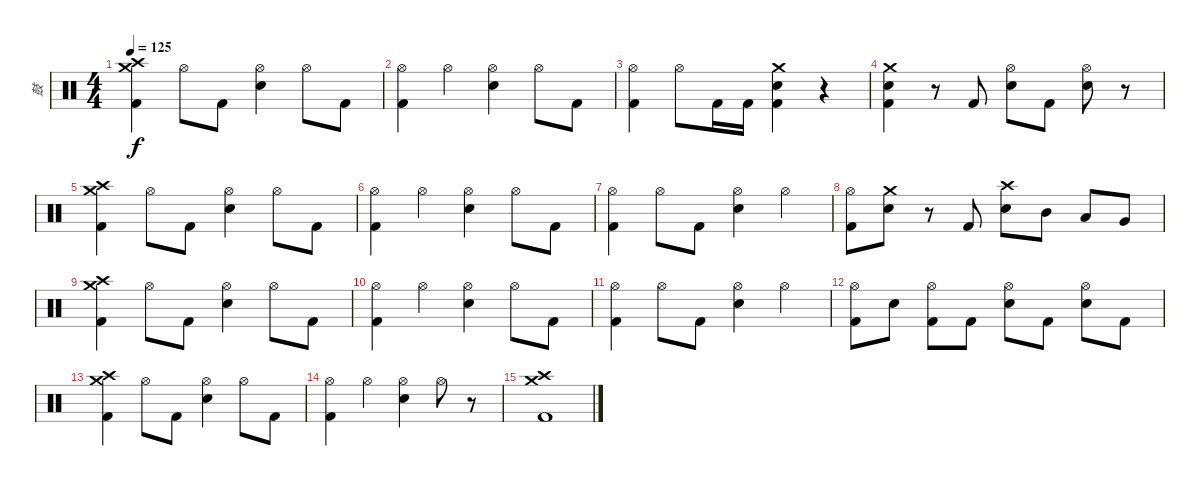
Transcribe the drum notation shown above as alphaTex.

\track ("鼓" "鼓") {instrument percussion}
\staff {score}
\articulation defaults
\ts (4 4)
\tempo 125
\clef neutral
\ks c
("Crash medium (hit)" "Crash high (hit)" "Kick (hit) 2").4{dy f} "Hi-Hat (open)".8 "Kick (hit) 2".8 ("Hi-Hat (open)" "Snare (hit) 2").4 "Hi-Hat (open)".8 "Kick (hit) 2".8 |
("Hi-Hat (open)" "Kick (hit) 2").4 "Hi-Hat (open)".4 ("Snare (hit) 2" "Hi-Hat (open)").4 "Hi-Hat (open)".8 "Kick (hit) 2".8 |
("Hi-Hat (open)" "Kick (hit) 2").4 "Hi-Hat (open)".8 "Kick (hit) 2".16 "Kick (hit) 2".16 ("Crash medium (hit)" "Snare (hit) 2" "Kick (hit) 2").4 r.4 |
("Crash medium (hit)" "Snare (hit) 2" "Kick (hit) 2").4 r.8 "Kick (hit) 2".8 ("Snare (hit) 2" "Hi-Hat (open)").8 "Kick (hit) 2".8 ("Hi-Hat (open)" "Snare (hit) 2").8 r.8 |
("Crash medium (hit)" "Crash high (hit)" "Kick (hit) 2").4 "Hi-Hat (open)".8 "Kick (hit) 2".8 ("Hi-Hat (open)" "Snare (hit) 2").4 "Hi-Hat (open)".8 "Kick (hit) 2".8 |
("Hi-Hat (open)" "Kick (hit) 2").4 "Hi-Hat (open)".4 ("Snare (hit) 2" "Hi-Hat (open)").4 "Hi-Hat (open)".8 "Kick (hit) 2".8 |
("Hi-Hat (open)" "Kick (hit) 2").4 "Hi-Hat (open)".8 "Kick (hit) 2".8 ("Hi-Hat (open)" "Snare (hit) 2").4 "Hi-Hat (open)".4 |
("Hi-Hat (open)" "Kick (hit) 2").8 ("Snare (hit) 2" "Crash medium (hit)").8 r.8 "Kick (hit) 2".8 ("Snare (hit) 2" "Crash high (hit)").8 "Mid Tom (hit)".8 "Low Tom (hit)".8 "Very Low Tom (hit)".8 |
("Crash medium (hit)" "Crash high (hit)" "Kick (hit) 2").4 "Hi-Hat (open)".8 "Kick (hit) 2".8 ("Hi-Hat (open)" "Snare (hit) 2").4 "Hi-Hat (open)".8 "Kick (hit) 2".8 |
("Hi-Hat (open)" "Kick (hit) 2").4 "Hi-Hat (open)".4 ("Snare (hit) 2" "Hi-Hat (open)").4 "Hi-Hat (open)".8 "Kick (hit) 2".8 |
("Hi-Hat (open)" "Kick (hit) 2").4 "Hi-Hat (open)".8 "Kick (hit) 2".8 ("Hi-Hat (open)" "Snare (hit) 2").4 "Hi-Hat (open)".4 |
("Hi-Hat (open)" "Kick (hit) 2").8 "Snare (hit) 2".8 ("Hi-Hat (open)" "Kick (hit) 2").8 "Kick (hit) 2".8 ("Snare (hit) 2" "Hi-Hat (open)").8 "Kick (hit) 2".8 ("Snare (hit) 2" "Hi-Hat (open)").8 "Kick (hit) 2".8 |
("Crash medium (hit)" "Crash high (hit)" "Kick (hit) 2").4 "Hi-Hat (open)".8 "Kick (hit) 2".8 ("Hi-Hat (open)" "Snare (hit) 2").4 "Hi-Hat (open)".8 "Kick (hit) 2".8 |
("Hi-Hat (open)" "Kick (hit) 2").4 "Hi-Hat (open)".4 ("Snare (hit) 2" "Hi-Hat (open)").4 "Hi-Hat (open)".8 r.8 |
("Crash medium (hit)" "Crash high (hit)" "Kick (hit) 2").1
